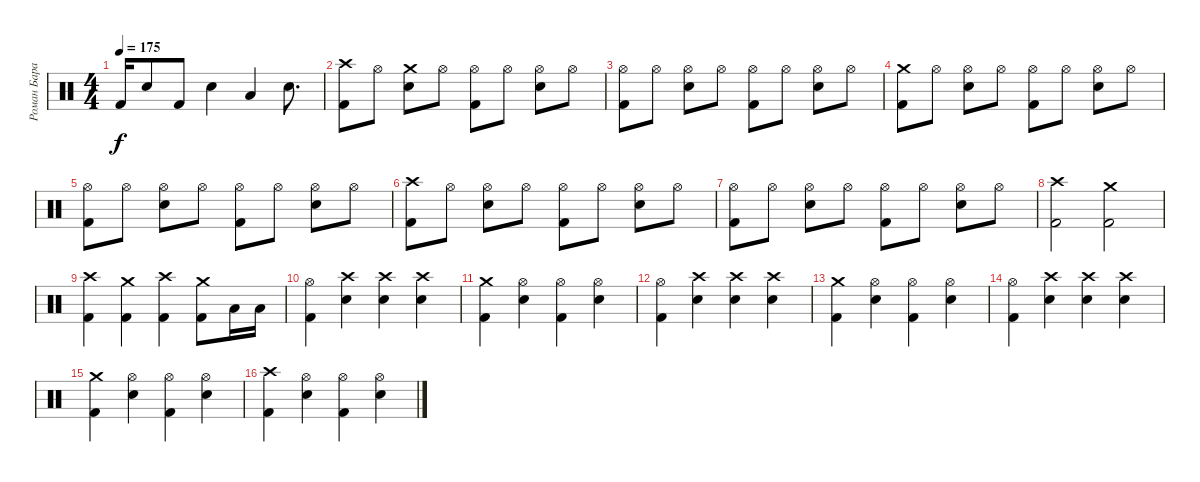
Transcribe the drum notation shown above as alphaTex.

\track ("Роман Баранюк" "Роман Бара") {instrument percussion}
\staff {score}
\articulation defaults
\ts (4 4)
\tempo 175
\clef neutral
\ks c "Kick (hit) 2".16{dy f} "Snare (hit) 2".8 "Kick (hit) 2".8 "Snare (hit) 2".4 "Low Tom (hit)".4 "Snare (hit) 2".8{d}
|
("Crash high (hit)" "Kick (hit) 2").8 "Hi-Hat (open)".8 ("Crash medium (hit)" "Snare (hit) 2").8 "Hi-Hat (open)".8 ("Hi-Hat (open)" "Kick (hit) 2").8 "Hi-Hat (open)".8 ("Hi-Hat (open)" "Snare (hit) 2").8 "Hi-Hat (open)".8 |
("Hi-Hat (open)" "Kick (hit) 2").8 "Hi-Hat (open)".8 ("Hi-Hat (open)" "Snare (hit) 2").8 "Hi-Hat (open)".8 ("Hi-Hat (open)" "Kick (hit) 2").8 "Hi-Hat (open)".8 ("Hi-Hat (open)" "Snare (hit) 2").8 "Hi-Hat (open)".8 |
("Crash medium (hit)" "Kick (hit) 2").8 "Hi-Hat (open)".8 ("Hi-Hat (open)" "Snare (hit) 2").8 "Hi-Hat (open)".8 ("Hi-Hat (open)" "Kick (hit) 2").8 "Hi-Hat (open)".8 ("Hi-Hat (open)" "Snare (hit) 2").8 "Hi-Hat (open)".8 |
("Hi-Hat (open)" "Kick (hit) 2").8 "Hi-Hat (open)".8 ("Hi-Hat (open)" "Snare (hit) 2").8 "Hi-Hat (open)".8 ("Hi-Hat (open)" "Kick (hit) 2").8 "Hi-Hat (open)".8 ("Hi-Hat (open)" "Snare (hit) 2").8 "Hi-Hat (open)".8 |
("Crash high (hit)" "Kick (hit) 2").8 "Hi-Hat (open)".8 ("Hi-Hat (open)" "Snare (hit) 2").8 "Hi-Hat (open)".8 ("Hi-Hat (open)" "Kick (hit) 2").8 "Hi-Hat (open)".8 ("Hi-Hat (open)" "Snare (hit) 2").8 "Hi-Hat (open)".8 |
("Hi-Hat (open)" "Kick (hit) 2").8 "Hi-Hat (open)".8 ("Hi-Hat (open)" "Snare (hit) 2").8 "Hi-Hat (open)".8 ("Hi-Hat (open)" "Kick (hit) 2").8 "Hi-Hat (open)".8 ("Hi-Hat (open)" "Snare (hit) 2").8 "Hi-Hat (open)".8 |
("Crash high (hit)" "Kick (hit) 2").2 ("Crash medium (hit)" "Kick (hit) 2").2 |
("Crash high (hit)" "Kick (hit) 2").4 ("Crash medium (hit)" "Kick (hit) 2").4 ("Crash high (hit)" "Kick (hit) 2").4 ("Crash medium (hit)" "Kick (hit) 2").8 "Low Tom (hit)".16 "Low Tom (hit)".16 |
("Hi-Hat (open)" "Kick (hit) 2").4 ("Crash high (hit)" "Snare (hit) 2").4 ("Crash high (hit)" "Snare (hit) 2").4 ("Crash high (hit)" "Snare (hit) 2").4 |
("Crash medium (hit)" "Kick (hit) 2").4 ("Hi-Hat (open)" "Snare (hit) 2").4 ("Hi-Hat (open)" "Kick (hit) 2").4 ("Hi-Hat (open)" "Snare (hit) 2").4 |
("Hi-Hat (open)" "Kick (hit) 2").4 ("Crash high (hit)" "Snare (hit) 2").4 ("Crash high (hit)" "Snare (hit) 2").4 ("Crash high (hit)" "Snare (hit) 2").4 |
("Crash medium (hit)" "Kick (hit) 2").4 ("Hi-Hat (open)" "Snare (hit) 2").4 ("Hi-Hat (open)" "Kick (hit) 2").4 ("Hi-Hat (open)" "Snare (hit) 2").4 |
("Hi-Hat (open)" "Kick (hit) 2").4 ("Crash high (hit)" "Snare (hit) 2").4 ("Crash high (hit)" "Snare (hit) 2").4 ("Crash high (hit)" "Snare (hit) 2").4 |
("Crash medium (hit)" "Kick (hit) 2").4 ("Hi-Hat (open)" "Snare (hit) 2").4 ("Hi-Hat (open)" "Kick (hit) 2").4 ("Hi-Hat (open)" "Snare (hit) 2").4 |
("Crash high (hit)" "Kick (hit) 2").4 ("Hi-Hat (open)" "Snare (hit) 2").4 ("Hi-Hat (open)" "Kick (hit) 2").4 ("Hi-Hat (open)" "Snare (hit) 2").4
